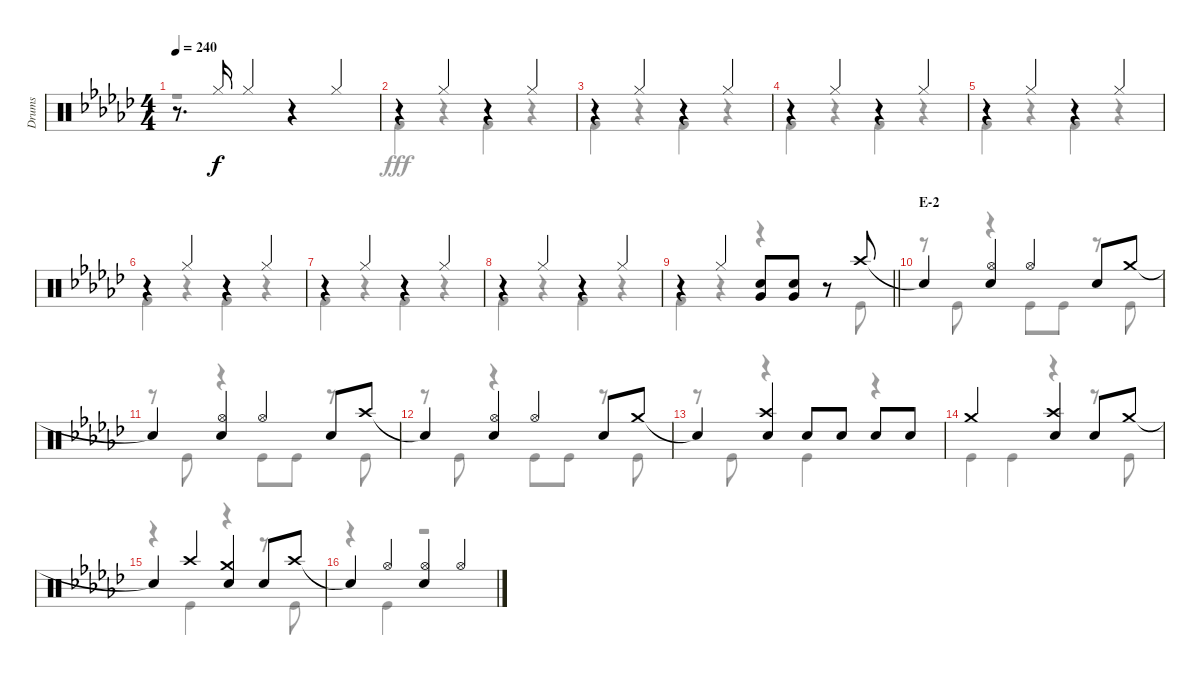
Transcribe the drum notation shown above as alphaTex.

\track ("Drums" "Drums") {instrument percussion}
\staff {score}
\articulation defaults
\voice
\ts (4 4)
\tempo 240
\clef neutral
\ks gb
r.8{d dy f} "Hi-Hat (closed)".16 "Hi-Hat (closed)".4 r.4 "Hi-Hat (closed)".4 |
r.4 "Hi-Hat (closed)".4 r.4 "Hi-Hat (closed)".4 |
r.4 "Hi-Hat (closed)".4 r.4 "Hi-Hat (closed)".4 |
r.4 "Hi-Hat (closed)".4 r.4 "Hi-Hat (closed)".4 |
r.4 "Hi-Hat (closed)".4 r.4 "Hi-Hat (closed)".4 |
r.4 "Hi-Hat (closed)".4 r.4 "Hi-Hat (closed)".4 |
r.4 "Hi-Hat (closed)".4 r.4 "Hi-Hat (closed)".4 |
r.4 "Hi-Hat (closed)".4 r.4 "Hi-Hat (closed)".4 |
\barLineRight lightlight
r.4 "Hi-Hat (closed)".4 ("Snare (hit) 2" "Very Low Tom (hit)").8 ("Snare (hit) 2" "Very Low Tom (hit)").8 r.8 "Crash high (hit)".8 |
\section ("" "E-2")
"Snare (hit)"{t}.4 ("Hi-Hat (open)" "Snare (hit) 2").4 "Hi-Hat (open)".4 "Snare (hit) 2".8 "Crash medium (hit)".8 |
"Snare (hit)"{t}.4 ("Hi-Hat (open)" "Snare (hit) 2").4 "Hi-Hat (open)".4 "Snare (hit) 2".8 "Crash high (hit)".8 |
"Snare (hit)"{t}.4 ("Hi-Hat (open)" "Snare (hit) 2").4 "Hi-Hat (open)".4 "Snare (hit) 2".8 "Crash medium (hit)".8 |
"Snare (hit)"{t}.4 ("Crash high (hit)" "Snare (hit) 2").4 "Snare (hit) 2".8 "Snare (hit) 2".8 "Snare (hit) 2".8 "Snare (hit) 2".8 |
"Crash medium (hit)".2 ("Crash high (hit)" "Snare (hit) 2").4 "Snare (hit) 2".8 "Crash medium (hit)".8 |
"Snare (hit)"{t}.4 "Crash high (hit)".4 ("Crash medium (hit)" "Snare (hit) 2").4 "Snare (hit) 2".8 "Crash high (hit)".8 |
"Snare (hit)"{t}.4 "Hi-Hat (open)".4 ("Hi-Hat (open)" "Snare (hit) 2").4 "Hi-Hat (open)".4
\voice
\clef neutral
\ottava regular
\simile none
\ks gb
r.1{dy fff} |
"Kick (hit) 2".4 r.4 "Kick (hit) 2".4 r.4 |
"Kick (hit) 2".4 r.4 "Kick (hit) 2".4 r.4 |
"Kick (hit) 2".4 r.4 "Kick (hit) 2".4 r.4 |
"Kick (hit) 2".4 r.4 "Kick (hit) 2".4 r.4 |
"Kick (hit) 2".4 r.4 "Kick (hit) 2".4 r.4 |
"Kick (hit) 2".4 r.4 "Kick (hit) 2".4 r.4 |
"Kick (hit) 2".4 r.4 "Kick (hit) 2".4 r.4 |
\barLineRight lightlight "Kick (hit) 2".4
r.4 r.4 r.8 "Kick (hit)".8 |
r.8 "Kick (hit)".8 r.4 "Kick (hit)".8 "Kick (hit)".8 r.8 "Kick (hit)".8 |
r.8 "Kick (hit)".8 r.4 "Kick (hit)".8 "Kick (hit)".8 r.8 "Kick (hit)".8 |
r.8 "Kick (hit)".8 r.4 "Kick (hit)".8 "Kick (hit)".8 r.8 "Kick (hit)".8 |
r.8 "Kick (hit)".8 r.4 "Kick (hit)".4 r.4 |
"Kick (hit)".4 "Kick (hit)".4 r.4 r.8 "Kick (hit)".8 |
r.4 "Kick (hit)".4 r.4 r.8 "Kick (hit)".8 |
r.4 "Kick (hit)".4 r.2
